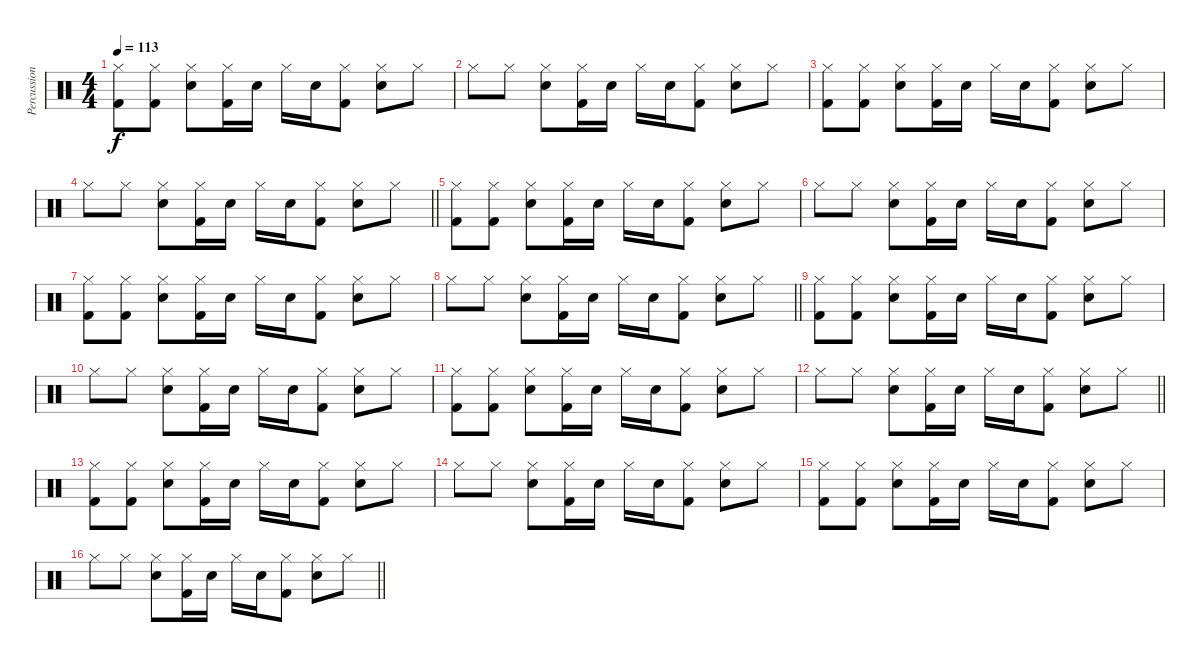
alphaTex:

\track ("Percussion" "Percussion") {instrument percussion}
\staff {score}
\articulation defaults
\ts (4 4)
\section ("" "")
\tempo 113
\clef neutral
\ks c
("Hi-Hat (closed)" "Kick (hit) 2").8{dy f} ("Hi-Hat (closed)" "Kick (hit) 2").8 ("Hi-Hat (closed)" "Snare (hit) 2").8 ("Hi-Hat (closed)" "Kick (hit) 2").16 "Snare (hit) 2".16 "Hi-Hat (closed)".16 "Snare (hit) 2".16 ("Hi-Hat (closed)" "Kick (hit) 2").8 ("Hi-Hat (closed)" "Snare (hit) 2").8 "Hi-Hat (closed)".8 |
"Hi-Hat (closed)".8 "Hi-Hat (closed)".8 ("Hi-Hat (closed)" "Snare (hit) 2").8 ("Hi-Hat (closed)" "Kick (hit) 2").16 "Snare (hit) 2".16 "Hi-Hat (closed)".16 "Snare (hit) 2".16 ("Hi-Hat (closed)" "Kick (hit) 2").8 ("Hi-Hat (closed)" "Snare (hit) 2").8 "Hi-Hat (closed)".8 |
("Hi-Hat (closed)" "Kick (hit) 2").8 ("Hi-Hat (closed)" "Kick (hit) 2").8 ("Hi-Hat (closed)" "Snare (hit) 2").8 ("Hi-Hat (closed)" "Kick (hit) 2").16 "Snare (hit) 2".16 "Hi-Hat (closed)".16 "Snare (hit) 2".16 ("Hi-Hat (closed)" "Kick (hit) 2").8 ("Hi-Hat (closed)" "Snare (hit) 2").8 "Hi-Hat (closed)".8 |
\barLineRight lightlight "Hi-Hat (closed)".8 "Hi-Hat (closed)".8
("Hi-Hat (closed)" "Snare (hit) 2").8 ("Hi-Hat (closed)" "Kick (hit) 2").16 "Snare (hit) 2".16 "Hi-Hat (closed)".16 "Snare (hit) 2".16 ("Hi-Hat (closed)" "Kick (hit) 2").8 ("Hi-Hat (closed)" "Snare (hit) 2").8 "Hi-Hat (closed)".8 |
\section ("" "")
("Hi-Hat (closed)" "Kick (hit) 2").8 ("Hi-Hat (closed)" "Kick (hit) 2").8 ("Hi-Hat (closed)" "Snare (hit) 2").8 ("Hi-Hat (closed)" "Kick (hit) 2").16 "Snare (hit) 2".16 "Hi-Hat (closed)".16 "Snare (hit) 2".16 ("Hi-Hat (closed)" "Kick (hit) 2").8 ("Hi-Hat (closed)" "Snare (hit) 2").8 "Hi-Hat (closed)".8 |
"Hi-Hat (closed)".8 "Hi-Hat (closed)".8 ("Hi-Hat (closed)" "Snare (hit) 2").8 ("Hi-Hat (closed)" "Kick (hit) 2").16 "Snare (hit) 2".16 "Hi-Hat (closed)".16 "Snare (hit) 2".16 ("Hi-Hat (closed)" "Kick (hit) 2").8 ("Hi-Hat (closed)" "Snare (hit) 2").8 "Hi-Hat (closed)".8 |
("Hi-Hat (closed)" "Kick (hit) 2").8 ("Hi-Hat (closed)" "Kick (hit) 2").8 ("Hi-Hat (closed)" "Snare (hit) 2").8 ("Hi-Hat (closed)" "Kick (hit) 2").16 "Snare (hit) 2".16 "Hi-Hat (closed)".16 "Snare (hit) 2".16 ("Hi-Hat (closed)" "Kick (hit) 2").8 ("Hi-Hat (closed)" "Snare (hit) 2").8 "Hi-Hat (closed)".8 |
\barLineRight lightlight "Hi-Hat (closed)".8 "Hi-Hat (closed)".8
("Hi-Hat (closed)" "Snare (hit) 2").8 ("Hi-Hat (closed)" "Kick (hit) 2").16 "Snare (hit) 2".16 "Hi-Hat (closed)".16 "Snare (hit) 2".16 ("Hi-Hat (closed)" "Kick (hit) 2").8 ("Hi-Hat (closed)" "Snare (hit) 2").8 "Hi-Hat (closed)".8 |
\section ("" "")
("Hi-Hat (closed)" "Kick (hit) 2").8 ("Hi-Hat (closed)" "Kick (hit) 2").8 ("Hi-Hat (closed)" "Snare (hit) 2").8 ("Hi-Hat (closed)" "Kick (hit) 2").16 "Snare (hit) 2".16 "Hi-Hat (closed)".16 "Snare (hit) 2".16 ("Hi-Hat (closed)" "Kick (hit) 2").8 ("Hi-Hat (closed)" "Snare (hit) 2").8 "Hi-Hat (closed)".8 |
"Hi-Hat (closed)".8 "Hi-Hat (closed)".8 ("Hi-Hat (closed)" "Snare (hit) 2").8 ("Hi-Hat (closed)" "Kick (hit) 2").16 "Snare (hit) 2".16 "Hi-Hat (closed)".16 "Snare (hit) 2".16 ("Hi-Hat (closed)" "Kick (hit) 2").8 ("Hi-Hat (closed)" "Snare (hit) 2").8 "Hi-Hat (closed)".8 |
("Hi-Hat (closed)" "Kick (hit) 2").8 ("Hi-Hat (closed)" "Kick (hit) 2").8 ("Hi-Hat (closed)" "Snare (hit) 2").8 ("Hi-Hat (closed)" "Kick (hit) 2").16 "Snare (hit) 2".16 "Hi-Hat (closed)".16 "Snare (hit) 2".16 ("Hi-Hat (closed)" "Kick (hit) 2").8 ("Hi-Hat (closed)" "Snare (hit) 2").8 "Hi-Hat (closed)".8 |
\barLineRight lightlight "Hi-Hat (closed)".8 "Hi-Hat (closed)".8
("Hi-Hat (closed)" "Snare (hit) 2").8 ("Hi-Hat (closed)" "Kick (hit) 2").16 "Snare (hit) 2".16 "Hi-Hat (closed)".16 "Snare (hit) 2".16 ("Hi-Hat (closed)" "Kick (hit) 2").8 ("Hi-Hat (closed)" "Snare (hit) 2").8 "Hi-Hat (closed)".8 |
\section ("" "")
("Hi-Hat (closed)" "Kick (hit) 2").8 ("Hi-Hat (closed)" "Kick (hit) 2").8 ("Hi-Hat (closed)" "Snare (hit) 2").8 ("Hi-Hat (closed)" "Kick (hit) 2").16 "Snare (hit) 2".16 "Hi-Hat (closed)".16 "Snare (hit) 2".16 ("Hi-Hat (closed)" "Kick (hit) 2").8 ("Hi-Hat (closed)" "Snare (hit) 2").8 "Hi-Hat (closed)".8 |
"Hi-Hat (closed)".8 "Hi-Hat (closed)".8 ("Hi-Hat (closed)" "Snare (hit) 2").8 ("Hi-Hat (closed)" "Kick (hit) 2").16 "Snare (hit) 2".16 "Hi-Hat (closed)".16 "Snare (hit) 2".16 ("Hi-Hat (closed)" "Kick (hit) 2").8 ("Hi-Hat (closed)" "Snare (hit) 2").8 "Hi-Hat (closed)".8 |
("Hi-Hat (closed)" "Kick (hit) 2").8 ("Hi-Hat (closed)" "Kick (hit) 2").8 ("Hi-Hat (closed)" "Snare (hit) 2").8 ("Hi-Hat (closed)" "Kick (hit) 2").16 "Snare (hit) 2".16 "Hi-Hat (closed)".16 "Snare (hit) 2".16 ("Hi-Hat (closed)" "Kick (hit) 2").8 ("Hi-Hat (closed)" "Snare (hit) 2").8 "Hi-Hat (closed)".8 |
\barLineRight lightlight "Hi-Hat (closed)".8 "Hi-Hat (closed)".8
("Hi-Hat (closed)" "Snare (hit) 2").8 ("Hi-Hat (closed)" "Kick (hit) 2").16 "Snare (hit) 2".16 "Hi-Hat (closed)".16 "Snare (hit) 2".16 ("Hi-Hat (closed)" "Kick (hit) 2").8 ("Hi-Hat (closed)" "Snare (hit) 2").8 "Hi-Hat (closed)".8
